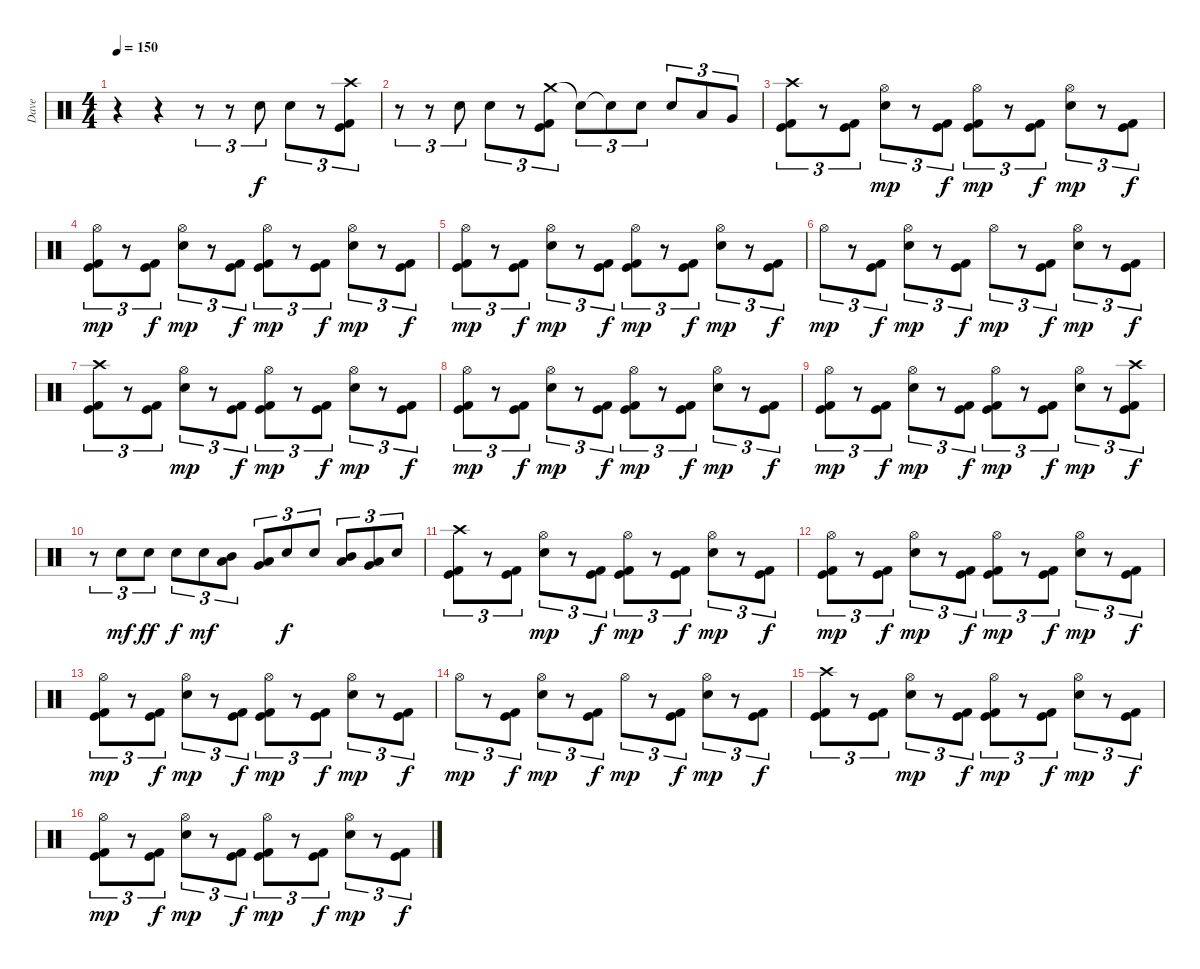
\track ("Dave" "Dave") {instrument percussion}
\staff {score}
\articulation defaults
\ts (4 4)
\tempo 150
\clef neutral
\ks c
r.4{dy f} r.4 r.8{tu (3 2)} r.8{tu (3 2)} "Electric Snare (hit)".8{tu (3 2)} "Electric Snare (hit)".8{tu (3 2)} r.8{tu (3 2)} ("Crash high (hit)" "Kick (hit)" "Kick (hit) 2").8{tu (3 2)} |
r.8{tu (3 2)} r.8{tu (3 2)} "Electric Snare (hit)".8{tu (3 2)} "Electric Snare (hit)".8{tu (3 2)} r.8{tu (3 2)} ("Crash medium (hit)" "Kick (hit)" "Kick (hit) 2").8{tu (3 2)} "Snare (hit)"{t}.8{tu (3 2)} "Snare (hit)"{t}.8{tu (3 2)} "Electric Snare (hit)".8{tu (3 2)} "Electric Snare (hit)".8{tu (3 2)} "Low Tom (hit)".8{tu (3 2)} "Very Low Tom (hit)".8{tu (3 2)} |
("Crash high (hit)" "Kick (hit)" "Kick (hit) 2").8{tu (3 2)} r.8{tu (3 2)} ("Kick (hit)" "Kick (hit) 2").8{tu (3 2)} ("Hi-Hat (open)" "Electric Snare (hit)").8{tu (3 2) dy mp} r.8{tu (3 2)} ("Kick (hit)" "Kick (hit) 2").8{tu (3 2) dy f} ("Hi-Hat (open)" "Kick (hit)" "Kick (hit) 2").8{tu (3 2) dy mp} r.8{tu (3 2)} ("Kick (hit)" "Kick (hit) 2").8{tu (3 2) dy f} ("Hi-Hat (open)" "Electric Snare (hit)").8{tu (3 2) dy mp} r.8{tu (3 2)} ("Kick (hit)" "Kick (hit) 2").8{tu (3 2) dy f} |
("Hi-Hat (open)" "Kick (hit)" "Kick (hit) 2").8{tu (3 2) dy mp} r.8{tu (3 2)} ("Kick (hit)" "Kick (hit) 2").8{tu (3 2) dy f} ("Hi-Hat (open)" "Electric Snare (hit)").8{tu (3 2) dy mp} r.8{tu (3 2)} ("Kick (hit)" "Kick (hit) 2").8{tu (3 2) dy f} ("Hi-Hat (open)" "Kick (hit)" "Kick (hit) 2").8{tu (3 2) dy mp} r.8{tu (3 2)} ("Kick (hit)" "Kick (hit) 2").8{tu (3 2) dy f} ("Hi-Hat (open)" "Electric Snare (hit)").8{tu (3 2) dy mp} r.8{tu (3 2)} ("Kick (hit)" "Kick (hit) 2").8{tu (3 2) dy f} |
("Hi-Hat (open)" "Kick (hit)" "Kick (hit) 2").8{tu (3 2) dy mp} r.8{tu (3 2)} ("Kick (hit)" "Kick (hit) 2").8{tu (3 2) dy f} ("Hi-Hat (open)" "Electric Snare (hit)").8{tu (3 2) dy mp} r.8{tu (3 2)} ("Kick (hit)" "Kick (hit) 2").8{tu (3 2) dy f} ("Hi-Hat (open)" "Kick (hit)" "Kick (hit) 2").8{tu (3 2) dy mp} r.8{tu (3 2)} ("Kick (hit)" "Kick (hit) 2").8{tu (3 2) dy f} ("Hi-Hat (open)" "Electric Snare (hit)").8{tu (3 2) dy mp} r.8{tu (3 2)} ("Kick (hit)" "Kick (hit) 2").8{tu (3 2) dy f} |
"Hi-Hat (open)".8{tu (3 2) dy mp} r.8{tu (3 2)} ("Kick (hit)" "Kick (hit) 2").8{tu (3 2) dy f} ("Hi-Hat (open)" "Electric Snare (hit)").8{tu (3 2) dy mp} r.8{tu (3 2)} ("Kick (hit)" "Kick (hit) 2").8{tu (3 2) dy f} "Hi-Hat (open)".8{tu (3 2) dy mp} r.8{tu (3 2)} ("Kick (hit)" "Kick (hit) 2").8{tu (3 2) dy f} ("Hi-Hat (open)" "Electric Snare (hit)").8{tu (3 2) dy mp} r.8{tu (3 2)} ("Kick (hit)" "Kick (hit) 2").8{tu (3 2) dy f} |
("Crash high (hit)" "Kick (hit)" "Kick (hit) 2").8{tu (3 2)} r.8{tu (3 2)} ("Kick (hit)" "Kick (hit) 2").8{tu (3 2)} ("Hi-Hat (open)" "Electric Snare (hit)").8{tu (3 2) dy mp} r.8{tu (3 2)} ("Kick (hit)" "Kick (hit) 2").8{tu (3 2) dy f} ("Hi-Hat (open)" "Kick (hit)" "Kick (hit) 2").8{tu (3 2) dy mp} r.8{tu (3 2)} ("Kick (hit)" "Kick (hit) 2").8{tu (3 2) dy f} ("Hi-Hat (open)" "Electric Snare (hit)").8{tu (3 2) dy mp} r.8{tu (3 2)} ("Kick (hit)" "Kick (hit) 2").8{tu (3 2) dy f} |
("Hi-Hat (open)" "Kick (hit)" "Kick (hit) 2").8{tu (3 2) dy mp} r.8{tu (3 2)} ("Kick (hit)" "Kick (hit) 2").8{tu (3 2) dy f} ("Hi-Hat (open)" "Electric Snare (hit)").8{tu (3 2) dy mp} r.8{tu (3 2)} ("Kick (hit)" "Kick (hit) 2").8{tu (3 2) dy f} ("Hi-Hat (open)" "Kick (hit)" "Kick (hit) 2").8{tu (3 2) dy mp} r.8{tu (3 2)} ("Kick (hit)" "Kick (hit) 2").8{tu (3 2) dy f} ("Hi-Hat (open)" "Electric Snare (hit)").8{tu (3 2) dy mp} r.8{tu (3 2)} ("Kick (hit)" "Kick (hit) 2").8{tu (3 2) dy f} |
("Hi-Hat (open)" "Kick (hit)" "Kick (hit) 2").8{tu (3 2) dy mp} r.8{tu (3 2)} ("Kick (hit)" "Kick (hit) 2").8{tu (3 2) dy f} ("Hi-Hat (open)" "Electric Snare (hit)").8{tu (3 2) dy mp} r.8{tu (3 2)} ("Kick (hit)" "Kick (hit) 2").8{tu (3 2) dy f} ("Hi-Hat (open)" "Kick (hit)" "Kick (hit) 2").8{tu (3 2) dy mp} r.8{tu (3 2)} ("Kick (hit)" "Kick (hit) 2").8{tu (3 2) dy f} ("Hi-Hat (open)" "Electric Snare (hit)").8{tu (3 2) dy mp} r.8{tu (3 2)} ("Crash high (hit)" "Kick (hit)" "Kick (hit) 2").8{tu (3 2) dy f} |
r.8{tu (3 2)} "Electric Snare (hit)".8{tu (3 2) dy mf} "Electric Snare (hit)".8{tu (3 2) dy ff} "Electric Snare (hit)".8{tu (3 2) dy f} "Electric Snare (hit)".8{tu (3 2) dy mf} ("Low Tom (hit)" "Mid Tom (hit)").8{tu (3 2)} ("Very Low Tom (hit)" "Low Tom (hit)").8{tu (3 2)} "Electric Snare (hit)".8{tu (3 2) dy f} "Electric Snare (hit)".8{tu (3 2)} ("Low Tom (hit)" "Mid Tom (hit)").8{tu (3 2)} ("Very Low Tom (hit)" "Low Tom (hit)").8{tu (3 2)} "Electric Snare (hit)".8{tu (3 2)} |
("Crash high (hit)" "Kick (hit)" "Kick (hit) 2").8{tu (3 2)} r.8{tu (3 2)} ("Kick (hit)" "Kick (hit) 2").8{tu (3 2)} ("Hi-Hat (open)" "Electric Snare (hit)").8{tu (3 2) dy mp} r.8{tu (3 2)} ("Kick (hit)" "Kick (hit) 2").8{tu (3 2) dy f} ("Hi-Hat (open)" "Kick (hit)" "Kick (hit) 2").8{tu (3 2) dy mp} r.8{tu (3 2)} ("Kick (hit)" "Kick (hit) 2").8{tu (3 2) dy f} ("Hi-Hat (open)" "Electric Snare (hit)").8{tu (3 2) dy mp} r.8{tu (3 2)} ("Kick (hit)" "Kick (hit) 2").8{tu (3 2) dy f} |
("Hi-Hat (open)" "Kick (hit)" "Kick (hit) 2").8{tu (3 2) dy mp} r.8{tu (3 2)} ("Kick (hit)" "Kick (hit) 2").8{tu (3 2) dy f} ("Hi-Hat (open)" "Electric Snare (hit)").8{tu (3 2) dy mp} r.8{tu (3 2)} ("Kick (hit)" "Kick (hit) 2").8{tu (3 2) dy f} ("Hi-Hat (open)" "Kick (hit)" "Kick (hit) 2").8{tu (3 2) dy mp} r.8{tu (3 2)} ("Kick (hit)" "Kick (hit) 2").8{tu (3 2) dy f} ("Hi-Hat (open)" "Electric Snare (hit)").8{tu (3 2) dy mp} r.8{tu (3 2)} ("Kick (hit)" "Kick (hit) 2").8{tu (3 2) dy f} |
("Hi-Hat (open)" "Kick (hit)" "Kick (hit) 2").8{tu (3 2) dy mp} r.8{tu (3 2)} ("Kick (hit)" "Kick (hit) 2").8{tu (3 2) dy f} ("Hi-Hat (open)" "Electric Snare (hit)").8{tu (3 2) dy mp} r.8{tu (3 2)} ("Kick (hit)" "Kick (hit) 2").8{tu (3 2) dy f} ("Hi-Hat (open)" "Kick (hit)" "Kick (hit) 2").8{tu (3 2) dy mp} r.8{tu (3 2)} ("Kick (hit)" "Kick (hit) 2").8{tu (3 2) dy f} ("Hi-Hat (open)" "Electric Snare (hit)").8{tu (3 2) dy mp} r.8{tu (3 2)} ("Kick (hit)" "Kick (hit) 2").8{tu (3 2) dy f} |
"Hi-Hat (open)".8{tu (3 2) dy mp} r.8{tu (3 2)} ("Kick (hit)" "Kick (hit) 2").8{tu (3 2) dy f} ("Hi-Hat (open)" "Electric Snare (hit)").8{tu (3 2) dy mp} r.8{tu (3 2)} ("Kick (hit)" "Kick (hit) 2").8{tu (3 2) dy f} "Hi-Hat (open)".8{tu (3 2) dy mp} r.8{tu (3 2)} ("Kick (hit)" "Kick (hit) 2").8{tu (3 2) dy f} ("Hi-Hat (open)" "Electric Snare (hit)").8{tu (3 2) dy mp} r.8{tu (3 2)} ("Kick (hit)" "Kick (hit) 2").8{tu (3 2) dy f} |
("Crash high (hit)" "Kick (hit)" "Kick (hit) 2").8{tu (3 2)} r.8{tu (3 2)} ("Kick (hit)" "Kick (hit) 2").8{tu (3 2)} ("Hi-Hat (open)" "Electric Snare (hit)").8{tu (3 2) dy mp} r.8{tu (3 2)} ("Kick (hit)" "Kick (hit) 2").8{tu (3 2) dy f} ("Hi-Hat (open)" "Kick (hit)" "Kick (hit) 2").8{tu (3 2) dy mp} r.8{tu (3 2)} ("Kick (hit)" "Kick (hit) 2").8{tu (3 2) dy f} ("Hi-Hat (open)" "Electric Snare (hit)").8{tu (3 2) dy mp} r.8{tu (3 2)} ("Kick (hit)" "Kick (hit) 2").8{tu (3 2) dy f} |
("Hi-Hat (open)" "Kick (hit)" "Kick (hit) 2").8{tu (3 2) dy mp} r.8{tu (3 2)} ("Kick (hit)" "Kick (hit) 2").8{tu (3 2) dy f} ("Hi-Hat (open)" "Electric Snare (hit)").8{tu (3 2) dy mp} r.8{tu (3 2)} ("Kick (hit)" "Kick (hit) 2").8{tu (3 2) dy f} ("Hi-Hat (open)" "Kick (hit)" "Kick (hit) 2").8{tu (3 2) dy mp} r.8{tu (3 2)} ("Kick (hit)" "Kick (hit) 2").8{tu (3 2) dy f} ("Hi-Hat (open)" "Electric Snare (hit)").8{tu (3 2) dy mp} r.8{tu (3 2)} ("Kick (hit)" "Kick (hit) 2").8{tu (3 2) dy f}
